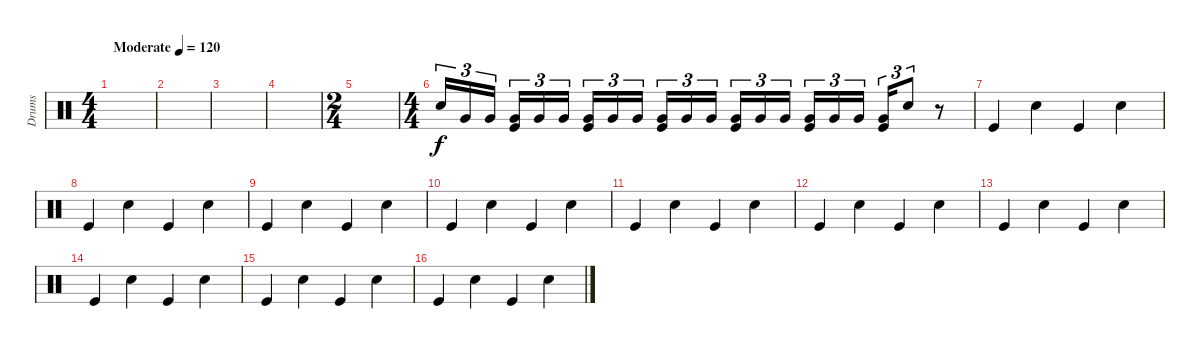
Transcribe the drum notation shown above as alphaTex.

\track ("Drums" "Drums") {instrument percussion}
\staff {score}
\articulation defaults
\ts (4 4)
\tempo (120 "Moderate")
\clef neutral
\ks c
|
|
|
|
\ts (2 4)
|
\ts (4 4)
"Snare (hit) 2".16{tu (3 2)} "Very Low Tom (hit)".16{tu (3 2)} "Very Low Tom (hit)".16{tu (3 2) beam splitsecondary} ("Very Low Tom (hit)" "Kick (hit)").16{tu (3 2)} "Very Low Tom (hit)".16{tu (3 2)} "Very Low Tom (hit)".16{tu (3 2)} ("Very Low Tom (hit)" "Kick (hit)").16{tu (3 2)} "Very Low Tom (hit)".16{tu (3 2)} "Very Low Tom (hit)".16{tu (3 2) beam splitsecondary} ("Very Low Tom (hit)" "Kick (hit)").16{tu (3 2)} "Very Low Tom (hit)".16{tu (3 2)} "Very Low Tom (hit)".16{tu (3 2)} ("Very Low Tom (hit)" "Kick (hit)").16{tu (3 2)} "Very Low Tom (hit)".16{tu (3 2)} "Very Low Tom (hit)".16{tu (3 2) beam splitsecondary} ("Very Low Tom (hit)" "Kick (hit)").16{tu (3 2)} "Very Low Tom (hit)".16{tu (3 2)} "Very Low Tom (hit)".16{tu (3 2)} ("Very Low Tom (hit)" "Kick (hit)").16{tu (3 2)} "Snare (hit) 2".8{tu (3 2)} r.8 |
"Kick (hit)".4 "Snare (hit) 2".4 "Kick (hit)".4 "Snare (hit) 2".4 |
"Kick (hit)".4 "Snare (hit) 2".4 "Kick (hit)".4 "Snare (hit) 2".4 |
"Kick (hit)".4 "Snare (hit) 2".4 "Kick (hit)".4 "Snare (hit) 2".4 |
"Kick (hit)".4 "Snare (hit) 2".4 "Kick (hit)".4 "Snare (hit) 2".4 |
"Kick (hit)".4 "Snare (hit) 2".4 "Kick (hit)".4 "Snare (hit) 2".4 |
"Kick (hit)".4 "Snare (hit) 2".4 "Kick (hit)".4 "Snare (hit) 2".4 |
"Kick (hit)".4 "Snare (hit) 2".4 "Kick (hit)".4 "Snare (hit) 2".4 |
"Kick (hit)".4 "Snare (hit) 2".4 "Kick (hit)".4 "Snare (hit) 2".4 |
"Kick (hit)".4 "Snare (hit) 2".4 "Kick (hit)".4 "Snare (hit) 2".4 |
"Kick (hit)".4 "Snare (hit) 2".4 "Kick (hit)".4 "Snare (hit) 2".4
